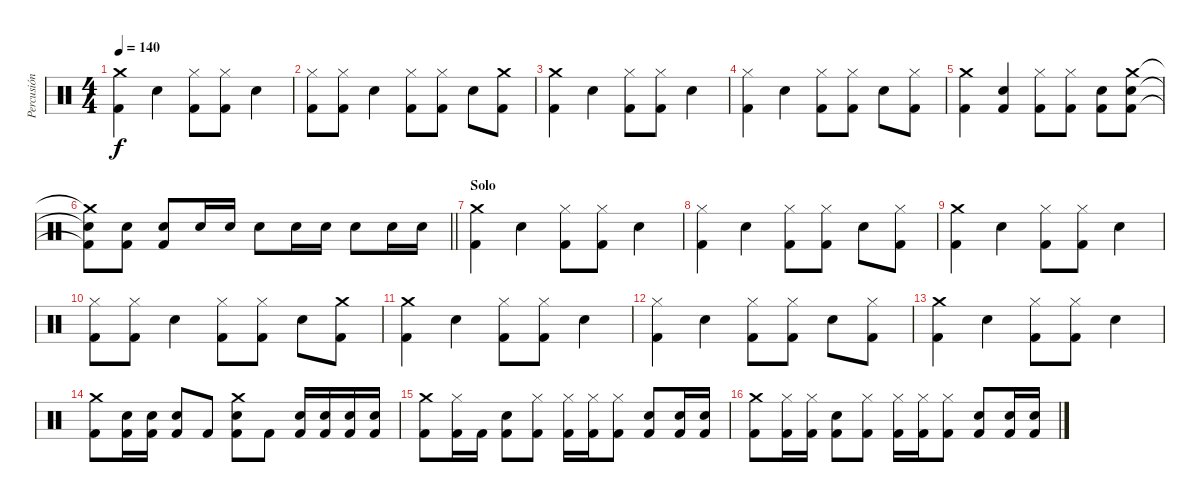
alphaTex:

\track ("Percusión" "Percusión") {instrument percussion}
\staff {score}
\articulation defaults
\ts (4 4)
\tempo 140
\clef neutral
\ks c
("Crash medium (hit)" "Kick (hit) 2").4{dy f} "Snare (hit) 2".4 ("Hi-Hat (closed)" "Kick (hit) 2").8 ("Hi-Hat (closed)" "Kick (hit) 2").8 "Snare (hit) 2".4 |
("Hi-Hat (closed)" "Kick (hit) 2").8 ("Hi-Hat (closed)" "Kick (hit) 2").8 "Snare (hit) 2".4 ("Hi-Hat (closed)" "Kick (hit) 2").8 ("Hi-Hat (closed)" "Kick (hit) 2").8 "Snare (hit) 2".8 ("Crash medium (hit)" "Kick (hit) 2").8 |
("Crash medium (hit)" "Kick (hit) 2").4 "Snare (hit) 2".4 ("Hi-Hat (closed)" "Kick (hit) 2").8 ("Hi-Hat (closed)" "Kick (hit) 2").8 "Snare (hit) 2".4 |
("Hi-Hat (closed)" "Kick (hit) 2").4 "Snare (hit) 2".4 ("Hi-Hat (closed)" "Kick (hit) 2").8 ("Hi-Hat (closed)" "Kick (hit) 2").8 "Snare (hit) 2".8 ("Hi-Hat (closed)" "Kick (hit) 2").8 |
("Crash medium (hit)" "Kick (hit) 2").4 ("Snare (hit) 2" "Kick (hit) 2").4 ("Hi-Hat (closed)" "Kick (hit) 2").8 ("Hi-Hat (closed)" "Kick (hit) 2").8 ("Snare (hit) 2" "Kick (hit) 2").8 ("Crash medium (hit)" "Snare (hit) 2" "Kick (hit) 2").8 |
\barLineRight lightlight
("Crash medium (hit)"{t} "Snare (hit) 2"{t} "Kick (hit) 2"{t}).8 ("Snare (hit) 2" "Kick (hit) 2").8 ("Snare (hit) 2" "Kick (hit) 2").8 "Snare (hit) 2".16 "Snare (hit) 2".16 "Snare (hit) 2".8 "Snare (hit) 2".16 "Snare (hit) 2".16 "Snare (hit) 2".8 "Snare (hit) 2".16 "Snare (hit) 2".16 |
\section ("" "Solo")
("Crash medium (hit)" "Kick (hit) 2").4 "Snare (hit) 2".4 ("Hi-Hat (closed)" "Kick (hit) 2").8 ("Hi-Hat (closed)" "Kick (hit) 2").8 "Snare (hit) 2".4 |
("Hi-Hat (closed)" "Kick (hit) 2").4 "Snare (hit) 2".4 ("Hi-Hat (closed)" "Kick (hit) 2").8 ("Hi-Hat (closed)" "Kick (hit) 2").8 "Snare (hit) 2".8 ("Hi-Hat (closed)" "Kick (hit) 2").8 |
("Crash medium (hit)" "Kick (hit) 2").4 "Snare (hit) 2".4 ("Hi-Hat (closed)" "Kick (hit) 2").8 ("Hi-Hat (closed)" "Kick (hit) 2").8 "Snare (hit) 2".4 |
("Hi-Hat (closed)" "Kick (hit) 2").8 ("Hi-Hat (closed)" "Kick (hit) 2").8 "Snare (hit) 2".4 ("Hi-Hat (closed)" "Kick (hit) 2").8 ("Hi-Hat (closed)" "Kick (hit) 2").8 "Snare (hit) 2".8 ("Crash medium (hit)" "Kick (hit) 2").8 |
("Crash medium (hit)" "Kick (hit) 2").4 "Snare (hit) 2".4 ("Hi-Hat (closed)" "Kick (hit) 2").8 ("Hi-Hat (closed)" "Kick (hit) 2").8 "Snare (hit) 2".4 |
("Hi-Hat (closed)" "Kick (hit) 2").4 "Snare (hit) 2".4 ("Hi-Hat (closed)" "Kick (hit) 2").8 ("Hi-Hat (closed)" "Kick (hit) 2").8 "Snare (hit) 2".8 ("Hi-Hat (closed)" "Kick (hit) 2").8 |
("Crash medium (hit)" "Kick (hit) 2").4 "Snare (hit) 2".4 ("Hi-Hat (closed)" "Kick (hit) 2").8 ("Hi-Hat (closed)" "Kick (hit) 2").8 "Snare (hit) 2".4 |
("Crash medium (hit)" "Kick (hit) 2").8 ("Snare (hit) 2" "Kick (hit) 2").16 ("Snare (hit) 2" "Kick (hit) 2").16 ("Snare (hit) 2" "Kick (hit) 2").8 "Kick (hit) 2".8 ("Crash medium (hit)" "Snare (hit) 2" "Kick (hit) 2").8 "Kick (hit) 2".8 ("Snare (hit) 2" "Kick (hit) 2").16 ("Snare (hit) 2" "Kick (hit) 2").16 ("Snare (hit) 2" "Kick (hit) 2").16 ("Snare (hit) 2" "Kick (hit) 2").16 |
("Crash medium (hit)" "Kick (hit) 2").8 ("Hi-Hat (closed)" "Kick (hit) 2").16 "Kick (hit) 2".16 ("Snare (hit) 2" "Kick (hit) 2").8 ("Hi-Hat (closed)" "Kick (hit) 2").8 ("Hi-Hat (closed)" "Kick (hit) 2").16 ("Hi-Hat (closed)" "Kick (hit) 2").16 ("Hi-Hat (closed)" "Kick (hit) 2").8 ("Snare (hit) 2" "Kick (hit) 2").8 ("Snare (hit) 2" "Kick (hit) 2").16 ("Snare (hit) 2" "Kick (hit) 2").16 |
("Crash medium (hit)" "Kick (hit) 2").8 ("Hi-Hat (closed)" "Kick (hit) 2").16 ("Hi-Hat (closed)" "Kick (hit) 2").16 ("Snare (hit) 2" "Kick (hit) 2").8 ("Hi-Hat (closed)" "Kick (hit) 2").8 ("Hi-Hat (closed)" "Kick (hit) 2").16 ("Hi-Hat (closed)" "Kick (hit) 2").16 ("Hi-Hat (closed)" "Kick (hit) 2").8 ("Snare (hit) 2" "Kick (hit) 2").8 ("Snare (hit) 2" "Kick (hit) 2").16 ("Snare (hit) 2" "Kick (hit) 2").16
